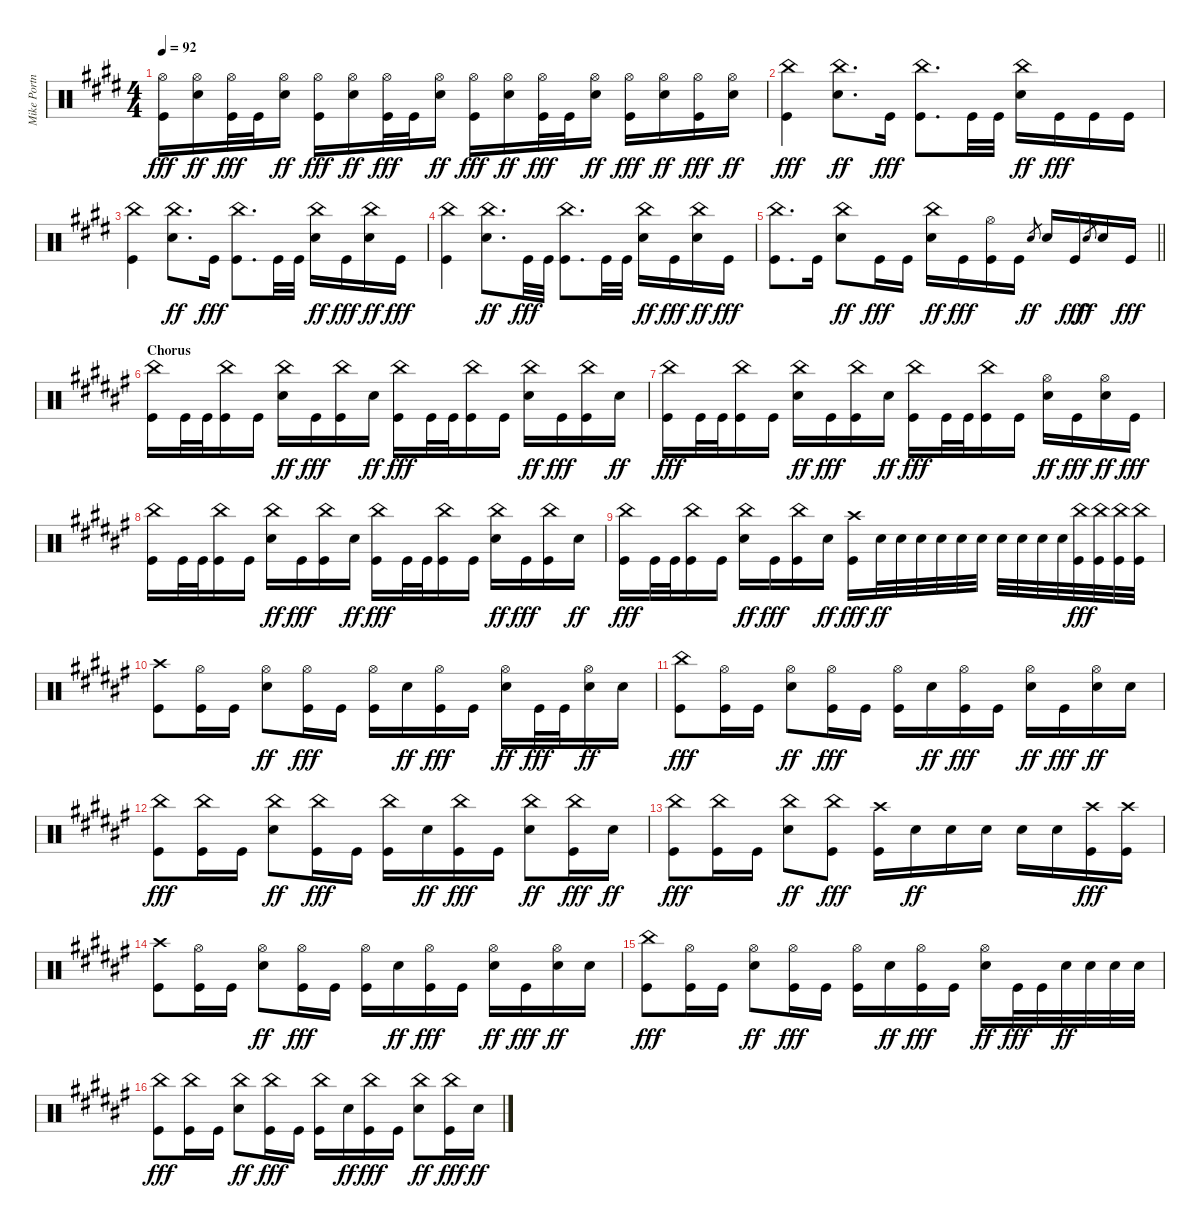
\track ("Mike Portnoy" "Mike Portn") {instrument percussion}
\staff {score}
\articulation defaults
\ts (4 4)
\tempo 92
\clef neutral
\ks e
("Hi-Hat (open)" "Kick (hit)").16{dy fff} ("Hi-Hat (open)" "Electric Snare (hit)").16{dy ff} ("Hi-Hat (open)" "Kick (hit)").32{dy fff} "Kick (hit)".32 ("Hi-Hat (open)" "Electric Snare (hit)").16{dy ff} ("Hi-Hat (open)" "Kick (hit)").16{dy fff} ("Hi-Hat (open)" "Electric Snare (hit)").16{dy ff} ("Hi-Hat (open)" "Kick (hit)").32{dy fff} "Kick (hit)".32 ("Hi-Hat (open)" "Electric Snare (hit)").16{dy ff} ("Hi-Hat (open)" "Kick (hit)").16{dy fff} ("Hi-Hat (open)" "Electric Snare (hit)").16{dy ff} ("Hi-Hat (open)" "Kick (hit)").32{dy fff} "Kick (hit)".32 ("Hi-Hat (open)" "Electric Snare (hit)").16{dy ff} ("Hi-Hat (open)" "Kick (hit)").16{dy fff} ("Hi-Hat (open)" "Electric Snare (hit)").16{dy ff} ("Hi-Hat (open)" "Kick (hit)").16{dy fff} ("Hi-Hat (open)" "Electric Snare (hit)").16{dy ff} |
("China (hit)" "Kick (hit)").4{dy fff} ("China (hit)" "Electric Snare (hit)").8{d dy ff} "Kick (hit)".16{dy fff} ("China (hit)" "Kick (hit)").8{d} "Kick (hit)".32 "Kick (hit)".32 ("China (hit)" "Electric Snare (hit)").16{dy ff} "Kick (hit)".16{dy fff} "Kick (hit)".16 "Kick (hit)".16 |
("China (hit)" "Kick (hit)").4 ("China (hit)" "Electric Snare (hit)").8{d dy ff} "Kick (hit)".16{dy fff} ("China (hit)" "Kick (hit)").8{d} "Kick (hit)".32 "Kick (hit)".32 ("China (hit)" "Electric Snare (hit)").16{dy ff} "Kick (hit)".16{dy fff} ("China (hit)" "Electric Snare (hit)").16{dy ff} "Kick (hit)".16{dy fff} |
("China (hit)" "Kick (hit)").4 ("China (hit)" "Electric Snare (hit)").8{d dy ff} "Kick (hit)".32{dy fff} "Kick (hit)".32 ("China (hit)" "Kick (hit)").8{d} "Kick (hit)".32 "Kick (hit)".32 ("China (hit)" "Electric Snare (hit)").16{dy ff} "Kick (hit)".16{dy fff} ("China (hit)" "Electric Snare (hit)").16{dy ff} "Kick (hit)".16{dy fff} |
\barLineRight lightlight
("China (hit)" "Kick (hit)").8{d} "Kick (hit)".16 ("China (hit)" "Electric Snare (hit)").8{dy ff} "Kick (hit)".16{dy fff} "Kick (hit)".16 ("China (hit)" "Electric Snare (hit)").16{dy ff} "Kick (hit)".16{dy fff} ("Hi-Hat (open)" "Kick (hit)").16 "Kick (hit)".16 "Electric Snare (hit)".8{gr dy ff} "Electric Snare (hit)".16 "Kick (hit)".16{dy fff} "Electric Snare (hit)".8{gr dy ff} "Electric Snare (hit)".16 "Kick (hit)".16{dy fff} |
\section ("" "Chorus")
\ks f#
("China (hit)" "Kick (hit)").16 "Kick (hit)".32 "Kick (hit)".32 ("China (hit)" "Kick (hit)").16 "Kick (hit)".16 ("China (hit)" "Electric Snare (hit)").16{dy ff} "Kick (hit)".16{dy fff} ("China (hit)" "Kick (hit)").16 "Electric Snare (hit)".16{dy ff} ("China (hit)" "Kick (hit)").16{dy fff} "Kick (hit)".32 "Kick (hit)".32 ("China (hit)" "Kick (hit)").16 "Kick (hit)".16 ("China (hit)" "Electric Snare (hit)").16{dy ff} "Kick (hit)".16{dy fff} ("China (hit)" "Kick (hit)").16 "Electric Snare (hit)".16{dy ff} |
("China (hit)" "Kick (hit)").16{dy fff} "Kick (hit)".32 "Kick (hit)".32 ("China (hit)" "Kick (hit)").16 "Kick (hit)".16 ("China (hit)" "Electric Snare (hit)").16{dy ff} "Kick (hit)".16{dy fff} ("China (hit)" "Kick (hit)").16 "Electric Snare (hit)".16{dy ff} ("China (hit)" "Kick (hit)").16{dy fff} "Kick (hit)".32 "Kick (hit)".32 ("China (hit)" "Kick (hit)").16 "Kick (hit)".16 ("Hi-Hat (open)" "Electric Snare (hit)").16{dy ff} "Kick (hit)".16{dy fff} ("Hi-Hat (open)" "Electric Snare (hit)").16{dy ff} "Kick (hit)".16{dy fff} |
("China (hit)" "Kick (hit)").16 "Kick (hit)".32 "Kick (hit)".32 ("China (hit)" "Kick (hit)").16 "Kick (hit)".16 ("China (hit)" "Electric Snare (hit)").16{dy ff} "Kick (hit)".16{dy fff} ("China (hit)" "Kick (hit)").16 "Electric Snare (hit)".16{dy ff} ("China (hit)" "Kick (hit)").16{dy fff} "Kick (hit)".32 "Kick (hit)".32 ("China (hit)" "Kick (hit)").16 "Kick (hit)".16 ("China (hit)" "Electric Snare (hit)").16{dy ff} "Kick (hit)".16{dy fff} ("China (hit)" "Kick (hit)").16 "Electric Snare (hit)".16{dy ff} |
("China (hit)" "Kick (hit)").16{dy fff} "Kick (hit)".32 "Kick (hit)".32 ("China (hit)" "Kick (hit)").16 "Kick (hit)".16 ("China (hit)" "Electric Snare (hit)").16{dy ff} "Kick (hit)".16{dy fff} ("China (hit)" "Kick (hit)").16 "Electric Snare (hit)".16{dy ff} ("Crash high (hit)" "Kick (hit)").16{dy fff} "Electric Snare (hit)".32{dy ff} "Electric Snare (hit)".32 "Electric Snare (hit)".32 "Electric Snare (hit)".32 "Electric Snare (hit)".32 "Electric Snare (hit)".32 "Electric Snare (hit)".32 "Electric Snare (hit)".32 "Electric Snare (hit)".32 "Electric Snare (hit)".32 ("China (hit)" "Kick (hit)").32{dy fff} ("China (hit)" "Kick (hit)").32 ("China (hit)" "Kick (hit)").32 ("China (hit)" "Kick (hit)").32 |
("Crash high (hit)" "Kick (hit)").8 ("Hi-Hat (open)" "Kick (hit)").16 "Kick (hit)".16 ("Hi-Hat (open)" "Electric Snare (hit)").8{dy ff} ("Hi-Hat (open)" "Kick (hit)").16{dy fff} "Kick (hit)".16 ("Hi-Hat (open)" "Kick (hit)").16 "Electric Snare (hit)".16{dy ff} ("Hi-Hat (open)" "Kick (hit)").16{dy fff} "Kick (hit)".16 ("Hi-Hat (open)" "Electric Snare (hit)").16{dy ff} "Kick (hit)".32{dy fff} "Kick (hit)".32 ("Hi-Hat (open)" "Electric Snare (hit)").16{dy ff} "Electric Snare (hit)".16 |
("China (hit)" "Kick (hit)").8{dy fff} ("Hi-Hat (open)" "Kick (hit)").16 "Kick (hit)".16 ("Hi-Hat (open)" "Electric Snare (hit)").8{dy ff} ("Hi-Hat (open)" "Kick (hit)").16{dy fff} "Kick (hit)".16 ("Hi-Hat (open)" "Kick (hit)").16 "Electric Snare (hit)".16{dy ff} ("Hi-Hat (open)" "Kick (hit)").16{dy fff} "Kick (hit)".16 ("Hi-Hat (open)" "Electric Snare (hit)").16{dy ff} "Kick (hit)".16{dy fff} ("Hi-Hat (open)" "Electric Snare (hit)").16{dy ff} "Electric Snare (hit)".16 |
("China (hit)" "Kick (hit)").8{dy fff} ("China (hit)" "Kick (hit)").16 "Kick (hit)".16 ("China (hit)" "Electric Snare (hit)").8{dy ff} ("China (hit)" "Kick (hit)").16{dy fff} "Kick (hit)".16 ("China (hit)" "Kick (hit)").16 "Electric Snare (hit)".16{dy ff} ("China (hit)" "Kick (hit)").16{dy fff} "Kick (hit)".16 ("China (hit)" "Electric Snare (hit)").8{dy ff} ("China (hit)" "Kick (hit)").16{dy fff} "Electric Snare (hit)".16{dy ff} |
("China (hit)" "Kick (hit)").8{dy fff} ("China (hit)" "Kick (hit)").16 "Kick (hit)".16 ("China (hit)" "Electric Snare (hit)").8{dy ff} ("China (hit)" "Kick (hit)").8{dy fff} ("Crash high (hit)" "Kick (hit)").16 "Electric Snare (hit)".16{dy ff} "Electric Snare (hit)".16 "Electric Snare (hit)".16 "Electric Snare (hit)".16 "Electric Snare (hit)".16 ("Crash high (hit)" "Kick (hit)").16{dy fff} ("Crash high (hit)" "Kick (hit)").16 |
("Crash high (hit)" "Kick (hit)").8 ("Hi-Hat (open)" "Kick (hit)").16 "Kick (hit)".16 ("Hi-Hat (open)" "Electric Snare (hit)").8{dy ff} ("Hi-Hat (open)" "Kick (hit)").16{dy fff} "Kick (hit)".16 ("Hi-Hat (open)" "Kick (hit)").16 "Electric Snare (hit)".16{dy ff} ("Hi-Hat (open)" "Kick (hit)").16{dy fff} "Kick (hit)".16 ("Hi-Hat (open)" "Electric Snare (hit)").16{dy ff} "Kick (hit)".16{dy fff} ("Hi-Hat (open)" "Electric Snare (hit)").16{dy ff} "Electric Snare (hit)".16 |
("China (hit)" "Kick (hit)").8{dy fff} ("Hi-Hat (open)" "Kick (hit)").16 "Kick (hit)".16 ("Hi-Hat (open)" "Electric Snare (hit)").8{dy ff} ("Hi-Hat (open)" "Kick (hit)").16{dy fff} "Kick (hit)".16 ("Hi-Hat (open)" "Kick (hit)").16 "Electric Snare (hit)".16{dy ff} ("Hi-Hat (open)" "Kick (hit)").16{dy fff} "Kick (hit)".16 ("Hi-Hat (open)" "Electric Snare (hit)").16{dy ff} "Kick (hit)".32{dy fff} "Kick (hit)".32 "Electric Snare (hit)".32{dy ff} "Electric Snare (hit)".32 "Electric Snare (hit)".32 "Electric Snare (hit)".32 |
("China (hit)" "Kick (hit)").8{dy fff} ("China (hit)" "Kick (hit)").16 "Kick (hit)".16 ("China (hit)" "Electric Snare (hit)").8{dy ff} ("China (hit)" "Kick (hit)").16{dy fff} "Kick (hit)".16 ("China (hit)" "Kick (hit)").16 "Electric Snare (hit)".16{dy ff} ("China (hit)" "Kick (hit)").16{dy fff} "Kick (hit)".16 ("China (hit)" "Electric Snare (hit)").8{dy ff} ("China (hit)" "Kick (hit)").16{dy fff} "Electric Snare (hit)".16{dy ff}
